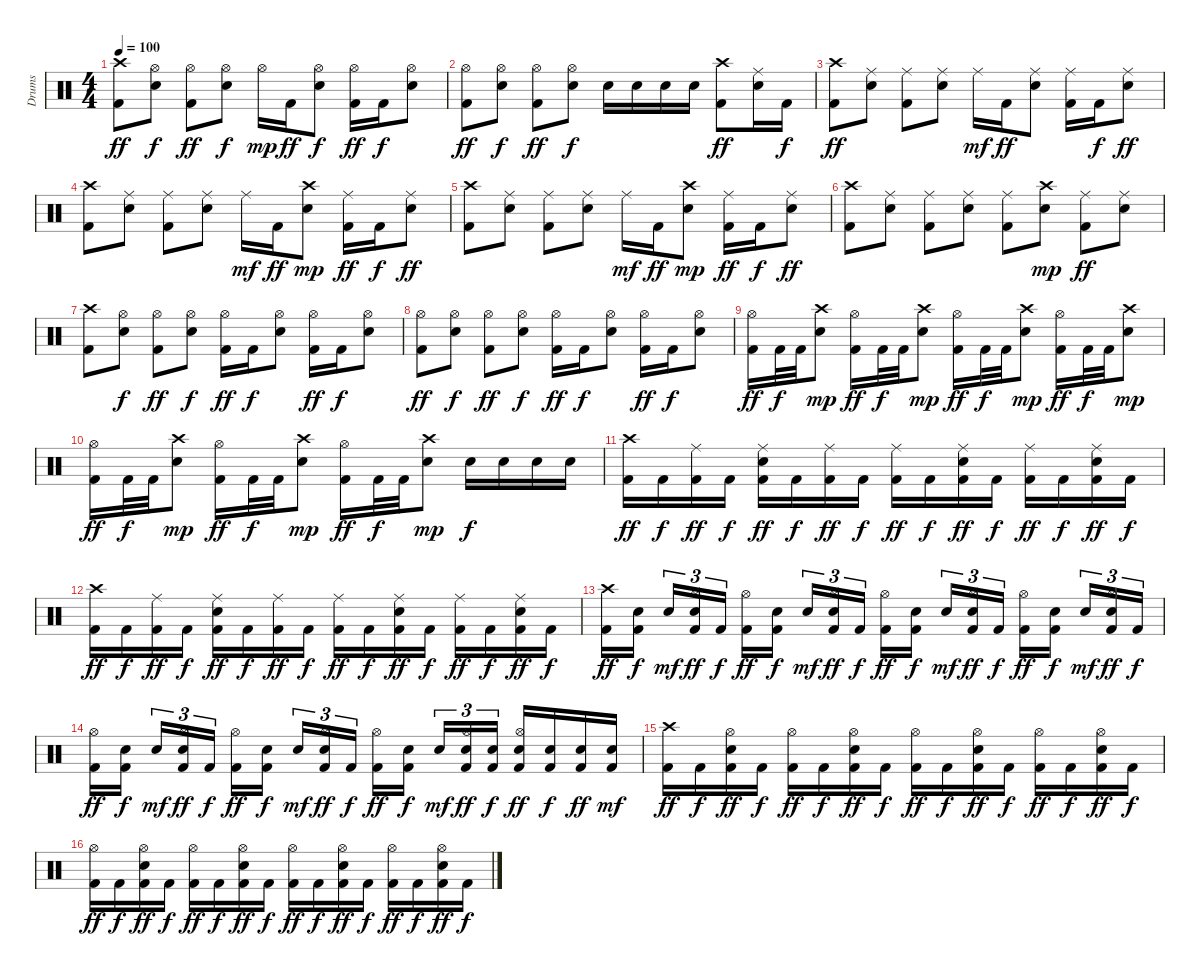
\track ("Drums" "Drums") {instrument percussion}
\staff {score}
\articulation defaults
\ts (4 4)
\tempo 100
\clef neutral
\ks c
("Crash high (hit)" "Kick (hit) 2").8{dy ff} ("Hi-Hat (open)" "Electric Snare (hit)").8{dy f} ("Hi-Hat (open)" "Kick (hit) 2").8{dy ff} ("Hi-Hat (open)" "Electric Snare (hit)").8{dy f} "Hi-Hat (open)".16{dy mp} "Kick (hit) 2".16{dy ff} ("Hi-Hat (open)" "Electric Snare (hit)").8{dy f} ("Hi-Hat (open)" "Kick (hit) 2").16{dy ff} "Kick (hit) 2".16{dy f} ("Hi-Hat (open)" "Electric Snare (hit)").8 |
("Hi-Hat (open)" "Kick (hit) 2").8{dy ff} ("Hi-Hat (open)" "Electric Snare (hit)").8{dy f} ("Hi-Hat (open)" "Kick (hit) 2").8{dy ff} ("Hi-Hat (open)" "Electric Snare (hit)").8{dy f} "Electric Snare (hit)".16 "Electric Snare (hit)".16 "Electric Snare (hit)".16 "Electric Snare (hit)".16 ("Crash high (hit)" "Kick (hit) 2").8{dy ff} ("Ride (middle)" "Electric Snare (hit)").16 "Kick (hit) 2".16{dy f} |
("Crash high (hit)" "Kick (hit) 2").8{dy ff} ("Ride (middle)" "Electric Snare (hit)").8 ("Ride (middle)" "Kick (hit) 2").8 ("Ride (middle)" "Electric Snare (hit)").8 "Ride (middle)".16{dy mf} "Kick (hit) 2".16{dy ff} ("Ride (middle)" "Electric Snare (hit)").8 ("Ride (middle)" "Kick (hit) 2").16 "Kick (hit) 2".16{dy f} ("Ride (middle)" "Electric Snare (hit)").8{dy ff} |
("Crash high (hit)" "Kick (hit) 2").8 ("Ride (middle)" "Electric Snare (hit)").8 ("Ride (middle)" "Kick (hit) 2").8 ("Ride (middle)" "Electric Snare (hit)").8 "Ride (middle)".16{dy mf} "Kick (hit) 2".16{dy ff} ("Crash high (hit)" "Electric Snare (hit)").8{dy mp} ("Ride (middle)" "Kick (hit) 2").16{dy ff} "Kick (hit) 2".16{dy f} ("Ride (middle)" "Electric Snare (hit)").8{dy ff} |
("Crash high (hit)" "Kick (hit) 2").8 ("Ride (middle)" "Electric Snare (hit)").8 ("Ride (middle)" "Kick (hit) 2").8 ("Ride (middle)" "Electric Snare (hit)").8 "Ride (middle)".16{dy mf} "Kick (hit) 2".16{dy ff} ("Crash high (hit)" "Electric Snare (hit)").8{dy mp} ("Ride (middle)" "Kick (hit) 2").16{dy ff} "Kick (hit) 2".16{dy f} ("Ride (middle)" "Electric Snare (hit)").8{dy ff} |
("Crash high (hit)" "Kick (hit) 2").8 ("Ride (middle)" "Electric Snare (hit)").8 ("Ride (middle)" "Kick (hit) 2").8 ("Ride (middle)" "Electric Snare (hit)").8 ("Ride (middle)" "Kick (hit) 2").8 ("Crash high (hit)" "Electric Snare (hit)").8{dy mp} ("Ride (middle)" "Kick (hit) 2").8{dy ff} ("Ride (middle)" "Electric Snare (hit)").8 |
("Crash high (hit)" "Kick (hit) 2").8 ("Hi-Hat (open)" "Electric Snare (hit)").8{dy f} ("Hi-Hat (open)" "Kick (hit) 2").8{dy ff} ("Hi-Hat (open)" "Electric Snare (hit)").8{dy f} ("Hi-Hat (open)" "Kick (hit) 2").16{dy ff} "Kick (hit) 2".16{dy f} ("Hi-Hat (open)" "Electric Snare (hit)").8 ("Hi-Hat (open)" "Kick (hit) 2").16{dy ff} "Kick (hit) 2".16{dy f} ("Hi-Hat (open)" "Electric Snare (hit)").8 |
("Hi-Hat (open)" "Kick (hit) 2").8{dy ff} ("Hi-Hat (open)" "Electric Snare (hit)").8{dy f} ("Hi-Hat (open)" "Kick (hit) 2").8{dy ff} ("Hi-Hat (open)" "Electric Snare (hit)").8{dy f} ("Hi-Hat (open)" "Kick (hit) 2").16{dy ff} "Kick (hit) 2".16{dy f} ("Hi-Hat (open)" "Electric Snare (hit)").8 ("Hi-Hat (open)" "Kick (hit) 2").16{dy ff} "Kick (hit) 2".16{dy f} ("Hi-Hat (open)" "Electric Snare (hit)").8 |
("Hi-Hat (open)" "Kick (hit) 2").16{dy ff} "Kick (hit) 2".32{dy f} "Kick (hit) 2".32 ("Crash high (hit)" "Electric Snare (hit)").8{dy mp} ("Hi-Hat (open)" "Kick (hit) 2").16{dy ff} "Kick (hit) 2".32{dy f} "Kick (hit) 2".32 ("Crash high (hit)" "Electric Snare (hit)").8{dy mp} ("Hi-Hat (open)" "Kick (hit) 2").16{dy ff} "Kick (hit) 2".32{dy f} "Kick (hit) 2".32 ("Crash high (hit)" "Electric Snare (hit)").8{dy mp} ("Hi-Hat (open)" "Kick (hit) 2").16{dy ff} "Kick (hit) 2".32{dy f} "Kick (hit) 2".32 ("Crash high (hit)" "Electric Snare (hit)").8{dy mp} |
("Hi-Hat (open)" "Kick (hit) 2").16{dy ff} "Kick (hit) 2".32{dy f} "Kick (hit) 2".32 ("Crash high (hit)" "Electric Snare (hit)").8{dy mp} ("Hi-Hat (open)" "Kick (hit) 2").16{dy ff} "Kick (hit) 2".32{dy f} "Kick (hit) 2".32 ("Crash high (hit)" "Electric Snare (hit)").8{dy mp} ("Hi-Hat (open)" "Kick (hit) 2").16{dy ff} "Kick (hit) 2".32{dy f} "Kick (hit) 2".32 ("Crash high (hit)" "Electric Snare (hit)").8{dy mp} "Electric Snare (hit)".16{dy f} "Electric Snare (hit)".16 "Electric Snare (hit)".16 "Electric Snare (hit)".16 |
("Crash high (hit)" "Kick (hit) 2").16{dy ff} "Kick (hit) 2".16{dy f} ("Ride (middle)" "Kick (hit) 2").16{dy ff} "Kick (hit) 2".16{dy f} ("Ride (middle)" "Electric Snare (hit)" "Kick (hit) 2").16{dy ff} "Kick (hit) 2".16{dy f} ("Ride (middle)" "Kick (hit) 2").16{dy ff} "Kick (hit) 2".16{dy f} ("Ride (middle)" "Kick (hit) 2").16{dy ff} "Kick (hit) 2".16{dy f} ("Ride (middle)" "Electric Snare (hit)" "Kick (hit) 2").16{dy ff} "Kick (hit) 2".16{dy f} ("Ride (middle)" "Kick (hit) 2").16{dy ff} "Kick (hit) 2".16{dy f} ("Ride (middle)" "Electric Snare (hit)" "Kick (hit) 2").16{dy ff} "Kick (hit) 2".16{dy f} |
("Crash high (hit)" "Kick (hit) 2").16{dy ff} "Kick (hit) 2".16{dy f} ("Ride (middle)" "Kick (hit) 2").16{dy ff} "Kick (hit) 2".16{dy f} ("Ride (middle)" "Electric Snare (hit)" "Kick (hit) 2").16{dy ff} "Kick (hit) 2".16{dy f} ("Ride (middle)" "Kick (hit) 2").16{dy ff} "Kick (hit) 2".16{dy f} ("Ride (middle)" "Kick (hit) 2").16{dy ff} "Kick (hit) 2".16{dy f} ("Ride (middle)" "Electric Snare (hit)" "Kick (hit) 2").16{dy ff} "Kick (hit) 2".16{dy f} ("Ride (middle)" "Kick (hit) 2").16{dy ff} "Kick (hit) 2".16{dy f} ("Ride (middle)" "Electric Snare (hit)" "Kick (hit) 2").16{dy ff} "Kick (hit) 2".16{dy f} |
("Crash high (hit)" "Kick (hit) 2").16{dy ff} ("Electric Snare (hit)" "Kick (hit) 2").16{dy f} "Electric Snare (hit)".16{tu (3 2) dy mf} ("Hi-Hat (open)" "Electric Snare (hit)" "Kick (hit) 2").16{tu (3 2) dy ff} "Kick (hit) 2".16{tu (3 2) dy f} ("Hi-Hat (open)" "Kick (hit) 2").16{dy ff} ("Electric Snare (hit)" "Kick (hit) 2").16{dy f} "Electric Snare (hit)".16{tu (3 2) dy mf} ("Hi-Hat (open)" "Electric Snare (hit)" "Kick (hit) 2").16{tu (3 2) dy ff} "Kick (hit) 2".16{tu (3 2) dy f} ("Hi-Hat (open)" "Kick (hit) 2").16{dy ff} ("Electric Snare (hit)" "Kick (hit) 2").16{dy f} "Electric Snare (hit)".16{tu (3 2) dy mf} ("Hi-Hat (open)" "Electric Snare (hit)" "Kick (hit) 2").16{tu (3 2) dy ff} "Kick (hit) 2".16{tu (3 2) dy f} ("Hi-Hat (open)" "Kick (hit) 2").16{dy ff} ("Electric Snare (hit)" "Kick (hit) 2").16{dy f} "Electric Snare (hit)".16{tu (3 2) dy mf} ("Hi-Hat (open)" "Electric Snare (hit)" "Kick (hit) 2").16{tu (3 2) dy ff} "Kick (hit) 2".16{tu (3 2) dy f} |
("Hi-Hat (open)" "Kick (hit) 2").16{dy ff} ("Electric Snare (hit)" "Kick (hit) 2").16{dy f} "Electric Snare (hit)".16{tu (3 2) dy mf} ("Hi-Hat (open)" "Electric Snare (hit)" "Kick (hit) 2").16{tu (3 2) dy ff} "Kick (hit) 2".16{tu (3 2) dy f} ("Hi-Hat (open)" "Kick (hit) 2").16{dy ff} ("Electric Snare (hit)" "Kick (hit) 2").16{dy f} "Electric Snare (hit)".16{tu (3 2) dy mf} ("Hi-Hat (open)" "Electric Snare (hit)" "Kick (hit) 2").16{tu (3 2) dy ff} "Kick (hit) 2".16{tu (3 2) dy f} ("Hi-Hat (open)" "Kick (hit) 2").16{dy ff} ("Electric Snare (hit)" "Kick (hit) 2").16{dy f} "Electric Snare (hit)".16{tu (3 2) dy mf} ("Hi-Hat (open)" "Electric Snare (hit)" "Kick (hit) 2").16{tu (3 2) dy ff} ("Electric Snare (hit)" "Kick (hit) 2").16{tu (3 2) dy f} ("Hi-Hat (open)" "Electric Snare (hit)" "Kick (hit) 2").16{dy ff} ("Electric Snare (hit)" "Kick (hit) 2").16{dy f} ("Electric Snare (hit)" "Kick (hit) 2").16{dy ff} ("Electric Snare (hit)" "Kick (hit) 2").16{dy mf} |
("Crash high (hit)" "Kick (hit) 2").16{dy ff} "Kick (hit) 2".16{dy f} ("Hi-Hat (open)" "Electric Snare (hit)" "Kick (hit) 2").16{dy ff} "Kick (hit) 2".16{dy f} ("Hi-Hat (open)" "Kick (hit) 2").16{dy ff} "Kick (hit) 2".16{dy f} ("Hi-Hat (open)" "Electric Snare (hit)" "Kick (hit) 2").16{dy ff} "Kick (hit) 2".16{dy f} ("Hi-Hat (open)" "Kick (hit) 2").16{dy ff} "Kick (hit) 2".16{dy f} ("Hi-Hat (open)" "Electric Snare (hit)" "Kick (hit) 2").16{dy ff} "Kick (hit) 2".16{dy f} ("Hi-Hat (open)" "Kick (hit) 2").16{dy ff} "Kick (hit) 2".16{dy f} ("Hi-Hat (open)" "Electric Snare (hit)" "Kick (hit) 2").16{dy ff} "Kick (hit) 2".16{dy f} |
("Hi-Hat (open)" "Kick (hit) 2").16{dy ff} "Kick (hit) 2".16{dy f} ("Hi-Hat (open)" "Electric Snare (hit)" "Kick (hit) 2").16{dy ff} "Kick (hit) 2".16{dy f} ("Hi-Hat (open)" "Kick (hit) 2").16{dy ff} "Kick (hit) 2".16{dy f} ("Hi-Hat (open)" "Electric Snare (hit)" "Kick (hit) 2").16{dy ff} "Kick (hit) 2".16{dy f} ("Hi-Hat (open)" "Kick (hit) 2").16{dy ff} "Kick (hit) 2".16{dy f} ("Hi-Hat (open)" "Electric Snare (hit)" "Kick (hit) 2").16{dy ff} "Kick (hit) 2".16{dy f} ("Hi-Hat (open)" "Kick (hit) 2").16{dy ff} "Kick (hit) 2".16{dy f} ("Hi-Hat (open)" "Electric Snare (hit)" "Kick (hit) 2").16{dy ff} "Kick (hit) 2".16{dy f}
